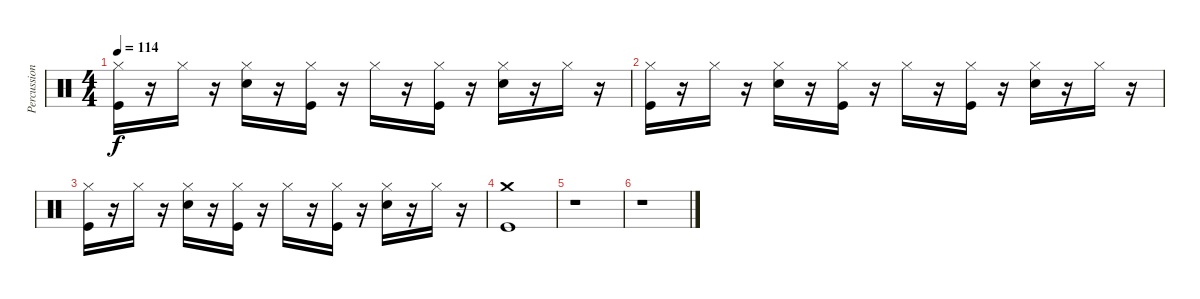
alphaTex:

\track ("Percussion" "Percussion") {instrument percussion}
\staff {score}
\articulation defaults
\ts (4 4)
\tempo 114
\clef neutral
\ks c
("Hi-Hat (closed)" "Kick (hit)").16{dy f} r.16 "Hi-Hat (closed)".16 r.16 ("Hi-Hat (closed)" "Electric Snare (hit)").16 r.16 ("Hi-Hat (closed)" "Kick (hit)").16 r.16 "Hi-Hat (closed)".16 r.16 ("Hi-Hat (closed)" "Kick (hit)").16 r.16 ("Hi-Hat (closed)" "Electric Snare (hit)").16 r.16 "Hi-Hat (closed)".16 r.16 |
("Hi-Hat (closed)" "Kick (hit)").16 r.16 "Hi-Hat (closed)".16 r.16 ("Hi-Hat (closed)" "Electric Snare (hit)").16 r.16 ("Hi-Hat (closed)" "Kick (hit)").16 r.16 "Hi-Hat (closed)".16 r.16 ("Hi-Hat (closed)" "Kick (hit)").16 r.16 ("Hi-Hat (closed)" "Electric Snare (hit)").16 r.16 "Hi-Hat (closed)".16 r.16 |
("Hi-Hat (closed)" "Kick (hit)").16 r.16 "Hi-Hat (closed)".16 r.16 ("Hi-Hat (closed)" "Electric Snare (hit)").16 r.16 ("Hi-Hat (closed)" "Kick (hit)").16 r.16 "Hi-Hat (closed)".16 r.16 ("Hi-Hat (closed)" "Kick (hit)").16 r.16 ("Hi-Hat (closed)" "Electric Snare (hit)").16 r.16 "Hi-Hat (closed)".16 r.16 |
("Crash medium (hit)" "Kick (hit)").1 |
r.1 |
r.1
